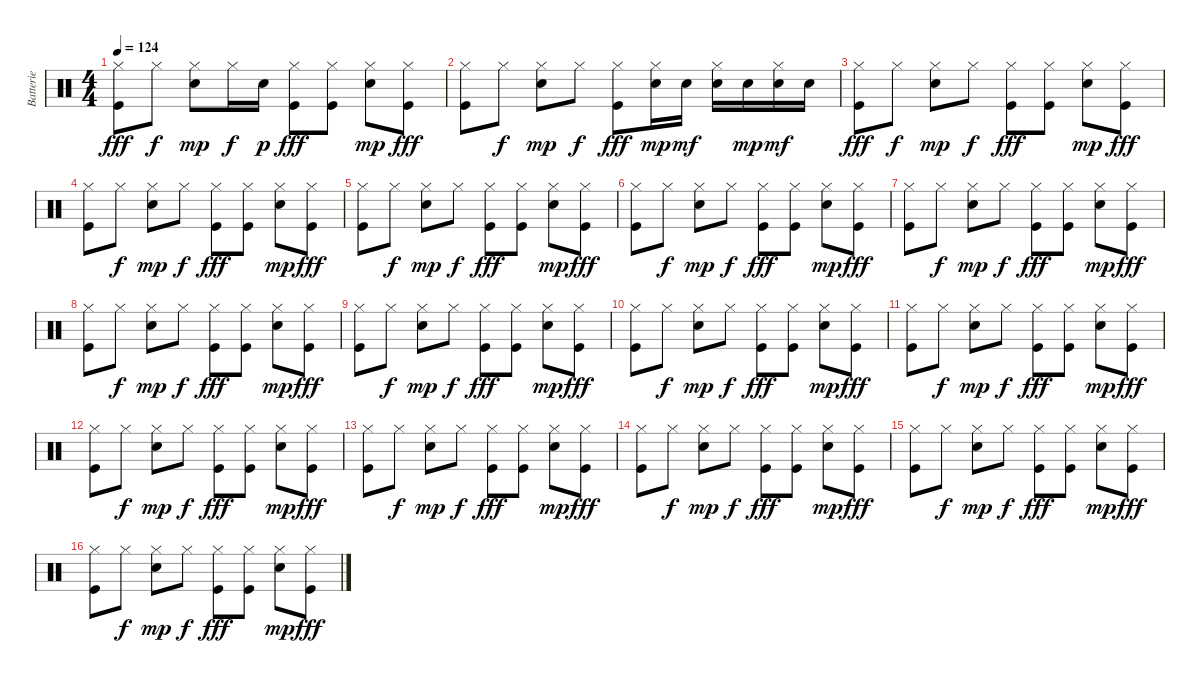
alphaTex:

\track ("Batterie" "Batterie") {instrument percussion}
\staff {score}
\articulation defaults
\ts (4 4)
\tempo 124
\clef neutral
\ks c
("Hi-Hat (closed)" "Kick (hit)").8{dy fff} "Hi-Hat (closed)".8{dy f} ("Hi-Hat (closed)" "Electric Snare (hit)").8{dy mp} "Hi-Hat (closed)".16{dy f} "Electric Snare (hit)".16{dy p} ("Hi-Hat (closed)" "Kick (hit)").8{dy fff} ("Hi-Hat (closed)" "Kick (hit)").8 ("Hi-Hat (closed)" "Electric Snare (hit)").8{dy mp} ("Hi-Hat (closed)" "Kick (hit)").8{dy fff} |
("Hi-Hat (closed)" "Kick (hit)").8 "Hi-Hat (closed)".8{dy f} ("Hi-Hat (closed)" "Electric Snare (hit)").8{dy mp} "Hi-Hat (closed)".8{dy f} ("Hi-Hat (closed)" "Kick (hit)").8{dy fff} ("Hi-Hat (closed)" "Electric Snare (hit)").16{dy mp} "Electric Snare (hit)".16{dy mf} ("Hi-Hat (closed)" "Electric Snare (hit)").16 "Electric Snare (hit)".16{dy mp} ("Hi-Hat (closed)" "Electric Snare (hit)").16{dy mf} "Electric Snare (hit)".16 |
("Hi-Hat (closed)" "Kick (hit)").8{dy fff} "Hi-Hat (closed)".8{dy f} ("Hi-Hat (closed)" "Electric Snare (hit)").8{dy mp} "Hi-Hat (closed)".8{dy f} ("Hi-Hat (closed)" "Kick (hit)").8{dy fff} ("Hi-Hat (closed)" "Kick (hit)").8 ("Hi-Hat (closed)" "Electric Snare (hit)").8{dy mp} ("Hi-Hat (closed)" "Kick (hit)").8{dy fff} |
("Hi-Hat (closed)" "Kick (hit)").8 "Hi-Hat (closed)".8{dy f} ("Hi-Hat (closed)" "Electric Snare (hit)").8{dy mp} "Hi-Hat (closed)".8{dy f} ("Hi-Hat (closed)" "Kick (hit)").8{dy fff} ("Hi-Hat (closed)" "Kick (hit)").8 ("Hi-Hat (closed)" "Electric Snare (hit)").8{dy mp} ("Hi-Hat (closed)" "Kick (hit)").8{dy fff} |
("Hi-Hat (closed)" "Kick (hit)").8 "Hi-Hat (closed)".8{dy f} ("Hi-Hat (closed)" "Electric Snare (hit)").8{dy mp} "Hi-Hat (closed)".8{dy f} ("Hi-Hat (closed)" "Kick (hit)").8{dy fff} ("Hi-Hat (closed)" "Kick (hit)").8 ("Hi-Hat (closed)" "Electric Snare (hit)").8{dy mp} ("Hi-Hat (closed)" "Kick (hit)").8{dy fff} |
("Hi-Hat (closed)" "Kick (hit)").8 "Hi-Hat (closed)".8{dy f} ("Hi-Hat (closed)" "Electric Snare (hit)").8{dy mp} "Hi-Hat (closed)".8{dy f} ("Hi-Hat (closed)" "Kick (hit)").8{dy fff} ("Hi-Hat (closed)" "Kick (hit)").8 ("Hi-Hat (closed)" "Electric Snare (hit)").8{dy mp} ("Hi-Hat (closed)" "Kick (hit)").8{dy fff} |
("Hi-Hat (closed)" "Kick (hit)").8 "Hi-Hat (closed)".8{dy f} ("Hi-Hat (closed)" "Electric Snare (hit)").8{dy mp} "Hi-Hat (closed)".8{dy f} ("Hi-Hat (closed)" "Kick (hit)").8{dy fff} ("Hi-Hat (closed)" "Kick (hit)").8 ("Hi-Hat (closed)" "Electric Snare (hit)").8{dy mp} ("Hi-Hat (closed)" "Kick (hit)").8{dy fff} |
("Hi-Hat (closed)" "Kick (hit)").8 "Hi-Hat (closed)".8{dy f} ("Hi-Hat (closed)" "Electric Snare (hit)").8{dy mp} "Hi-Hat (closed)".8{dy f} ("Hi-Hat (closed)" "Kick (hit)").8{dy fff} ("Hi-Hat (closed)" "Kick (hit)").8 ("Hi-Hat (closed)" "Electric Snare (hit)").8{dy mp} ("Hi-Hat (closed)" "Kick (hit)").8{dy fff} |
("Hi-Hat (closed)" "Kick (hit)").8 "Hi-Hat (closed)".8{dy f} ("Hi-Hat (closed)" "Electric Snare (hit)").8{dy mp} "Hi-Hat (closed)".8{dy f} ("Hi-Hat (closed)" "Kick (hit)").8{dy fff} ("Hi-Hat (closed)" "Kick (hit)").8 ("Hi-Hat (closed)" "Electric Snare (hit)").8{dy mp} ("Hi-Hat (closed)" "Kick (hit)").8{dy fff} |
("Hi-Hat (closed)" "Kick (hit)").8 "Hi-Hat (closed)".8{dy f} ("Hi-Hat (closed)" "Electric Snare (hit)").8{dy mp} "Hi-Hat (closed)".8{dy f} ("Hi-Hat (closed)" "Kick (hit)").8{dy fff} ("Hi-Hat (closed)" "Kick (hit)").8 ("Hi-Hat (closed)" "Electric Snare (hit)").8{dy mp} ("Hi-Hat (closed)" "Kick (hit)").8{dy fff} |
("Hi-Hat (closed)" "Kick (hit)").8 "Hi-Hat (closed)".8{dy f} ("Hi-Hat (closed)" "Electric Snare (hit)").8{dy mp} "Hi-Hat (closed)".8{dy f} ("Hi-Hat (closed)" "Kick (hit)").8{dy fff} ("Hi-Hat (closed)" "Kick (hit)").8 ("Hi-Hat (closed)" "Electric Snare (hit)").8{dy mp} ("Hi-Hat (closed)" "Kick (hit)").8{dy fff} |
("Hi-Hat (closed)" "Kick (hit)").8 "Hi-Hat (closed)".8{dy f} ("Hi-Hat (closed)" "Electric Snare (hit)").8{dy mp} "Hi-Hat (closed)".8{dy f} ("Hi-Hat (closed)" "Kick (hit)").8{dy fff} ("Hi-Hat (closed)" "Kick (hit)").8 ("Hi-Hat (closed)" "Electric Snare (hit)").8{dy mp} ("Hi-Hat (closed)" "Kick (hit)").8{dy fff} |
("Hi-Hat (closed)" "Kick (hit)").8 "Hi-Hat (closed)".8{dy f} ("Hi-Hat (closed)" "Electric Snare (hit)").8{dy mp} "Hi-Hat (closed)".8{dy f} ("Hi-Hat (closed)" "Kick (hit)").8{dy fff} ("Hi-Hat (closed)" "Kick (hit)").8 ("Hi-Hat (closed)" "Electric Snare (hit)").8{dy mp} ("Hi-Hat (closed)" "Kick (hit)").8{dy fff} |
("Hi-Hat (closed)" "Kick (hit)").8 "Hi-Hat (closed)".8{dy f} ("Hi-Hat (closed)" "Electric Snare (hit)").8{dy mp} "Hi-Hat (closed)".8{dy f} ("Hi-Hat (closed)" "Kick (hit)").8{dy fff} ("Hi-Hat (closed)" "Kick (hit)").8 ("Hi-Hat (closed)" "Electric Snare (hit)").8{dy mp} ("Hi-Hat (closed)" "Kick (hit)").8{dy fff} |
("Hi-Hat (closed)" "Kick (hit)").8 "Hi-Hat (closed)".8{dy f} ("Hi-Hat (closed)" "Electric Snare (hit)").8{dy mp} "Hi-Hat (closed)".8{dy f} ("Hi-Hat (closed)" "Kick (hit)").8{dy fff} ("Hi-Hat (closed)" "Kick (hit)").8 ("Hi-Hat (closed)" "Electric Snare (hit)").8{dy mp} ("Hi-Hat (closed)" "Kick (hit)").8{dy fff} |
("Hi-Hat (closed)" "Kick (hit)").8 "Hi-Hat (closed)".8{dy f} ("Hi-Hat (closed)" "Electric Snare (hit)").8{dy mp} "Hi-Hat (closed)".8{dy f} ("Hi-Hat (closed)" "Kick (hit)").8{dy fff} ("Hi-Hat (closed)" "Kick (hit)").8 ("Hi-Hat (closed)" "Electric Snare (hit)").8{dy mp} ("Hi-Hat (closed)" "Kick (hit)").8{dy fff}
